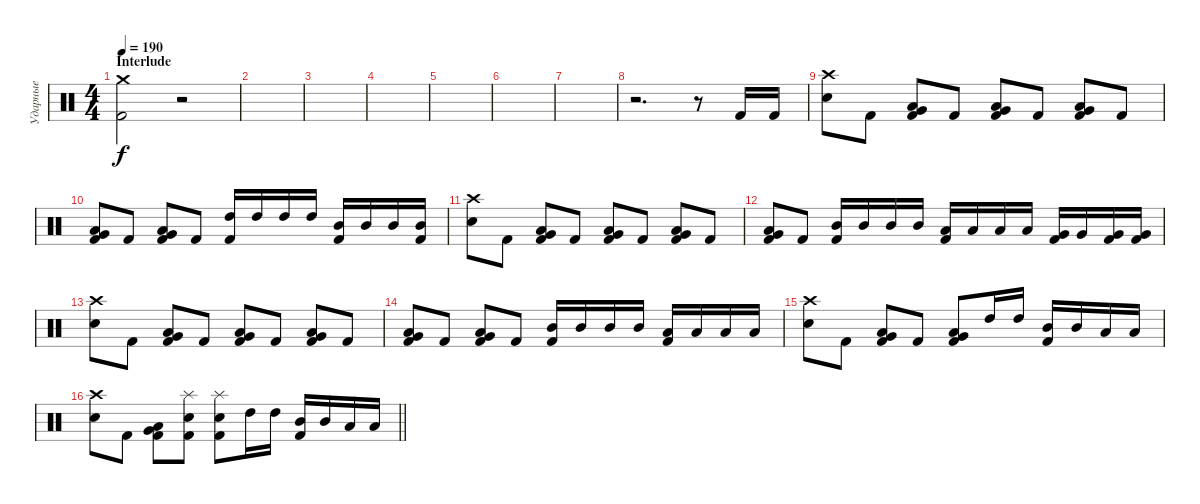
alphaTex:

\track ("Ударные" "Ударные") {instrument percussion}
\staff {score}
\articulation defaults
\ts (4 4)
\section ("" "Interlude")
\tempo 190
\clef neutral
\ks c
("Crash medium (hit)" "Kick (hit) 2").2{dy f} r.2 |
|
|
|
|
|
|
r.2{d} r.8 "Kick (hit) 2".16 "Kick (hit) 2".16 |
("Crash high (hit)" "Electric Snare (hit)").8 "Kick (hit) 2".8 ("Low Tom (hit)" "Very Low Tom (hit)" "Kick (hit) 2").8 "Kick (hit) 2".8 ("Low Tom (hit)" "Very Low Tom (hit)" "Kick (hit) 2").8 "Kick (hit) 2".8 ("Low Tom (hit)" "Very Low Tom (hit)" "Kick (hit) 2").8 "Kick (hit) 2".8 |
("Low Tom (hit)" "Very Low Tom (hit)" "Kick (hit) 2").8 "Kick (hit) 2".8 ("Low Tom (hit)" "Very Low Tom (hit)" "Kick (hit) 2").8 "Kick (hit) 2".8 ("High Tom (hit)" "Kick (hit) 2").16 "High Tom (hit)".16 "High Tom (hit)".16 "High Tom (hit)".16 ("Mid Tom (hit)" "Kick (hit) 2").16 "Mid Tom (hit)".16 "Mid Tom (hit)".16 ("Mid Tom (hit)" "Kick (hit) 2").16 |
("Crash high (hit)" "Electric Snare (hit)").8 "Kick (hit) 2".8 ("Low Tom (hit)" "Very Low Tom (hit)" "Kick (hit) 2").8 "Kick (hit) 2".8 ("Low Tom (hit)" "Very Low Tom (hit)" "Kick (hit) 2").8 "Kick (hit) 2".8 ("Low Tom (hit)" "Very Low Tom (hit)" "Kick (hit) 2").8 "Kick (hit) 2".8 |
("Low Tom (hit)" "Very Low Tom (hit)" "Kick (hit) 2").8 "Kick (hit) 2".8 ("Mid Tom (hit)" "Kick (hit) 2").16 "Mid Tom (hit)".16 "Mid Tom (hit)".16 "Mid Tom (hit)".16 ("Low Tom (hit)" "Kick (hit) 2").16 "Low Tom (hit)".16 "Low Tom (hit)".16 "Low Tom (hit)".16 ("Very Low Tom (hit)" "Kick (hit) 2").16 "Very Low Tom (hit)".16 ("Very Low Tom (hit)" "Kick (hit) 2").16 ("Very Low Tom (hit)" "Kick (hit) 2").16 |
("Crash high (hit)" "Electric Snare (hit)").8 "Kick (hit) 2".8 ("Low Tom (hit)" "Very Low Tom (hit)" "Kick (hit) 2").8 "Kick (hit) 2".8 ("Low Tom (hit)" "Very Low Tom (hit)" "Kick (hit) 2").8 "Kick (hit) 2".8 ("Low Tom (hit)" "Very Low Tom (hit)" "Kick (hit) 2").8 "Kick (hit) 2".8 |
("Low Tom (hit)" "Very Low Tom (hit)" "Kick (hit) 2").8 "Kick (hit) 2".8 ("Low Tom (hit)" "Very Low Tom (hit)" "Kick (hit) 2").8 "Kick (hit) 2".8 ("Mid Tom (hit)" "Kick (hit) 2").16 "Mid Tom (hit)".16 "Mid Tom (hit)".16 "Mid Tom (hit)".16 ("Low Tom (hit)" "Kick (hit) 2").16 "Low Tom (hit)".16 "Low Tom (hit)".16 "Low Tom (hit)".16 |
("Crash high (hit)" "Electric Snare (hit)").8 "Kick (hit) 2".8 ("Low Tom (hit)" "Very Low Tom (hit)" "Kick (hit) 2").8 "Kick (hit) 2".8 ("Low Tom (hit)" "Very Low Tom (hit)" "Kick (hit) 2").8 "High Tom (hit)".16 "High Tom (hit)".16 ("Mid Tom (hit)" "Kick (hit) 2").16 "Mid Tom (hit)".16 "Low Tom (hit)".16 "Low Tom (hit)".16 |
\barLineRight lightlight
("Crash high (hit)" "Electric Snare (hit)").8 "Kick (hit) 2".8 ("Low Tom (hit)" "Very Low Tom (hit)" "Kick (hit) 2").8 ("Splash (hit)" "Electric Snare (hit)" "Kick (hit) 2").8 ("Splash (hit)" "Electric Snare (hit)" "Kick (hit) 2").8 "High Tom (hit)".16 "High Tom (hit)".16 ("Mid Tom (hit)" "Kick (hit) 2").16 "Mid Tom (hit)".16 "Low Tom (hit)".16 "Low Tom (hit)".16
